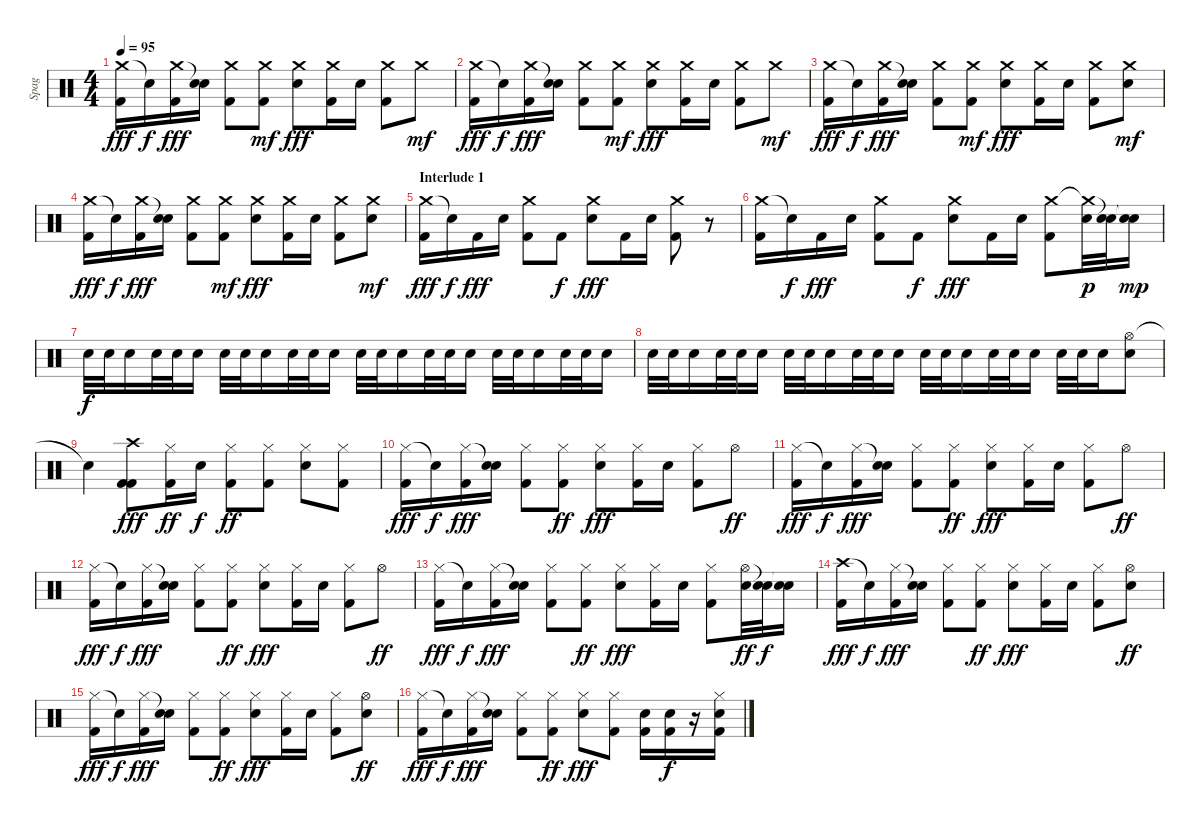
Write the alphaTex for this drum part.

\track ("Spag" "Spag") {instrument percussion}
\staff {score}
\articulation defaults
\ts (4 4)
\tempo 95
\clef neutral
\ks c
("Crash medium (hit)" "Kick (hit) 2").16{dy fff} "Snare (hit)"{t}.16{dy f} ("Crash medium (hit)" "Kick (hit) 2").16{dy fff} ("Snare (hit)"{t} "Electric Snare (hit)").16 ("Crash medium (hit)" "Kick (hit) 2").8 ("Crash medium (hit)" "Kick (hit) 2").8{dy mf} ("Crash medium (hit)" "Electric Snare (hit)").8{dy fff} ("Crash medium (hit)" "Kick (hit) 2").16 "Electric Snare (hit)".16 ("Crash medium (hit)" "Kick (hit) 2").8 "Crash medium (hit)".8{dy mf} |
("Crash medium (hit)" "Kick (hit) 2").16{dy fff} "Snare (hit)"{t}.16{dy f} ("Crash medium (hit)" "Kick (hit) 2").16{dy fff} ("Snare (hit)"{t} "Electric Snare (hit)").16 ("Crash medium (hit)" "Kick (hit) 2").8 ("Crash medium (hit)" "Kick (hit) 2").8{dy mf} ("Crash medium (hit)" "Electric Snare (hit)").8{dy fff} ("Crash medium (hit)" "Kick (hit) 2").16 "Electric Snare (hit)".16 ("Crash medium (hit)" "Kick (hit) 2").8 "Crash medium (hit)".8{dy mf} |
("Crash medium (hit)" "Kick (hit) 2").16{dy fff} "Snare (hit)"{t}.16{dy f} ("Crash medium (hit)" "Kick (hit) 2").16{dy fff} ("Snare (hit)"{t} "Electric Snare (hit)").16 ("Crash medium (hit)" "Kick (hit) 2").8 ("Crash medium (hit)" "Kick (hit) 2").8{dy mf} ("Crash medium (hit)" "Electric Snare (hit)").8{dy fff} ("Crash medium (hit)" "Kick (hit) 2").16 "Electric Snare (hit)".16 ("Crash medium (hit)" "Kick (hit) 2").8 ("Crash medium (hit)" "Electric Snare (hit)").8{dy mf} |
("Crash medium (hit)" "Kick (hit) 2").16{dy fff} "Snare (hit)"{t}.16{dy f} ("Crash medium (hit)" "Kick (hit) 2").16{dy fff} ("Snare (hit)"{t} "Electric Snare (hit)").16 ("Crash medium (hit)" "Kick (hit) 2").8 ("Crash medium (hit)" "Kick (hit) 2").8{dy mf} ("Crash medium (hit)" "Electric Snare (hit)").8{dy fff} ("Crash medium (hit)" "Kick (hit) 2").16 "Electric Snare (hit)".16 ("Crash medium (hit)" "Kick (hit) 2").8 ("Crash medium (hit)" "Electric Snare (hit)").8{dy mf} |
\section ("" "Interlude 1")
("Crash medium (hit)" "Kick (hit) 2").16{dy fff} "Snare (hit)"{t}.16{dy f} "Kick (hit) 2".16{dy fff} "Electric Snare (hit)".16 ("Crash medium (hit)" "Kick (hit) 2").8 "Kick (hit) 2".8{dy f} ("Crash medium (hit)" "Electric Snare (hit)").8{dy fff} "Kick (hit) 2".16 "Electric Snare (hit)".16 ("Crash medium (hit)" "Kick (hit) 2").8 r.8 |
("Crash medium (hit)" "Kick (hit) 2").16 "Snare (hit)"{t}.16{dy f} "Kick (hit) 2".16{dy fff} "Electric Snare (hit)".16 ("Crash medium (hit)" "Kick (hit) 2").8 "Kick (hit) 2".8{dy f} ("Crash medium (hit)" "Electric Snare (hit)").8{dy fff} "Kick (hit) 2".16 "Electric Snare (hit)".16 ("Crash medium (hit)" "Kick (hit) 2").8 ("Crash medium (hit)"{t} "Electric Snare (hit)").32{dy p} ("Snare (hit)"{t} "Electric Snare (hit)").32 ("Snare (hit)"{t} "Electric Snare (hit)").16{dy mp} |
"Electric Snare (hit)".32{dy f volume 10} "Electric Snare (hit)".32 "Electric Snare (hit)".16 "Electric Snare (hit)".32{volume 12} "Electric Snare (hit)".32 "Electric Snare (hit)".16 "Electric Snare (hit)".32 "Electric Snare (hit)".32 "Electric Snare (hit)".16 "Electric Snare (hit)".32 "Electric Snare (hit)".32{volume 13} "Electric Snare (hit)".16 "Electric Snare (hit)".32 "Electric Snare (hit)".32 "Electric Snare (hit)".16 "Electric Snare (hit)".32 "Electric Snare (hit)".32 "Electric Snare (hit)".16 "Electric Snare (hit)".32 "Electric Snare (hit)".32 "Electric Snare (hit)".16{volume 14} "Electric Snare (hit)".32 "Electric Snare (hit)".32 "Electric Snare (hit)".16 |
"Electric Snare (hit)".32 "Electric Snare (hit)".32 "Electric Snare (hit)".16{volume 15} "Electric Snare (hit)".32 "Electric Snare (hit)".32 "Electric Snare (hit)".16 "Electric Snare (hit)".32 "Electric Snare (hit)".32 "Electric Snare (hit)".16 "Electric Snare (hit)".32 "Electric Snare (hit)".32 "Electric Snare (hit)".16 "Electric Snare (hit)".32{volume 16} "Electric Snare (hit)".32 "Electric Snare (hit)".16 "Electric Snare (hit)".32 "Electric Snare (hit)".32 "Electric Snare (hit)".16 "Electric Snare (hit)".32 "Electric Snare (hit)".32 "Electric Snare (hit)".16 ("Hi-Hat (open)" "Electric Snare (hit)").8 |
"Snare (hit)"{t}.4 ("Crash high (hit)" "Kick (hit) 2" "Kick (hit) 2").8{dy fff} ("Hi-Hat (closed)" "Kick (hit) 2").16{dy ff} "Electric Snare (hit)".16{dy f} ("Hi-Hat (closed)" "Kick (hit) 2").8{dy ff} ("Hi-Hat (closed)" "Kick (hit) 2").8 ("Hi-Hat (closed)" "Electric Snare (hit)").8 ("Hi-Hat (closed)" "Kick (hit) 2").8 |
("Hi-Hat (closed)" "Kick (hit) 2").16{dy fff} "Snare (hit)"{t}.16{dy f} ("Hi-Hat (closed)" "Kick (hit) 2").16{dy fff} ("Snare (hit)"{t} "Electric Snare (hit)").16 ("Hi-Hat (closed)" "Kick (hit) 2").8 ("Hi-Hat (closed)" "Kick (hit) 2").8{dy ff} ("Hi-Hat (closed)" "Electric Snare (hit)").8{dy fff} ("Hi-Hat (closed)" "Kick (hit) 2").16 "Electric Snare (hit)".16 ("Hi-Hat (closed)" "Kick (hit) 2").8 "Hi-Hat (open)".8{dy ff} |
("Hi-Hat (closed)" "Kick (hit) 2").16{dy fff} "Snare (hit)"{t}.16{dy f} ("Hi-Hat (closed)" "Kick (hit) 2").16{dy fff} ("Snare (hit)"{t} "Electric Snare (hit)").16 ("Hi-Hat (closed)" "Kick (hit) 2").8 ("Hi-Hat (closed)" "Kick (hit) 2").8{dy ff} ("Hi-Hat (closed)" "Electric Snare (hit)").8{dy fff} ("Hi-Hat (closed)" "Kick (hit) 2").16 "Electric Snare (hit)".16 ("Hi-Hat (closed)" "Kick (hit) 2").8 "Hi-Hat (open)".8{dy ff} |
("Hi-Hat (closed)" "Kick (hit) 2").16{dy fff} "Snare (hit)"{t}.16{dy f} ("Hi-Hat (closed)" "Kick (hit) 2").16{dy fff} ("Snare (hit)"{t} "Electric Snare (hit)").16 ("Hi-Hat (closed)" "Kick (hit) 2").8 ("Hi-Hat (closed)" "Kick (hit) 2").8{dy ff} ("Hi-Hat (closed)" "Electric Snare (hit)").8{dy fff} ("Hi-Hat (closed)" "Kick (hit) 2").16 "Electric Snare (hit)".16 ("Hi-Hat (closed)" "Kick (hit) 2").8 "Hi-Hat (open)".8{dy ff} |
("Hi-Hat (closed)" "Kick (hit) 2").16{dy fff} "Snare (hit)"{t}.16{dy f} ("Hi-Hat (closed)" "Kick (hit) 2").16{dy fff} ("Snare (hit)"{t} "Electric Snare (hit)").16 ("Hi-Hat (closed)" "Kick (hit) 2").8 ("Hi-Hat (closed)" "Kick (hit) 2").8{dy ff} ("Hi-Hat (closed)" "Electric Snare (hit)").8{dy fff} ("Hi-Hat (closed)" "Kick (hit) 2").16 "Electric Snare (hit)".16 ("Hi-Hat (closed)" "Kick (hit) 2").8 ("Hi-Hat (open)" "Electric Snare (hit)").32{dy ff} ("Snare (hit)"{t} "Electric Snare (hit)").32{dy f} ("Snare (hit)"{t} "Electric Snare (hit)").16 |
("Crash high (hit)" "Kick (hit) 2").16{dy fff} "Snare (hit)"{t}.16{dy f} ("Hi-Hat (closed)" "Kick (hit) 2").16{dy fff} ("Snare (hit)"{t} "Electric Snare (hit)").16 ("Hi-Hat (closed)" "Kick (hit) 2").8 ("Hi-Hat (closed)" "Kick (hit) 2").8{dy ff} ("Hi-Hat (closed)" "Electric Snare (hit)").8{dy fff} ("Hi-Hat (closed)" "Kick (hit) 2").16 "Electric Snare (hit)".16 ("Hi-Hat (closed)" "Kick (hit) 2").8 ("Hi-Hat (open)" "Electric Snare (hit)").8{dy ff} |
("Hi-Hat (closed)" "Kick (hit) 2").16{dy fff} "Snare (hit)"{t}.16{dy f} ("Hi-Hat (closed)" "Kick (hit) 2").16{dy fff} ("Snare (hit)"{t} "Electric Snare (hit)").16 ("Hi-Hat (closed)" "Kick (hit) 2").8 ("Hi-Hat (closed)" "Kick (hit) 2").8{dy ff} ("Hi-Hat (closed)" "Electric Snare (hit)").8{dy fff} ("Hi-Hat (closed)" "Kick (hit) 2").16 "Electric Snare (hit)".16 ("Hi-Hat (closed)" "Kick (hit) 2").8 ("Hi-Hat (open)" "Electric Snare (hit)").8{dy ff} |
("Hi-Hat (closed)" "Kick (hit) 2").16{dy fff} "Snare (hit)"{t}.16{dy f} ("Hi-Hat (closed)" "Kick (hit) 2").16{dy fff} ("Snare (hit)"{t} "Electric Snare (hit)").16 ("Hi-Hat (closed)" "Kick (hit) 2").8 ("Hi-Hat (closed)" "Kick (hit) 2").8{dy ff} ("Hi-Hat (closed)" "Electric Snare (hit)").8{dy fff} ("Hi-Hat (closed)" "Kick (hit) 2").8 ("Snare (hit) 2" "Kick (hit) 2").16 ("Snare (hit) 2" "Kick (hit) 2").16{dy f} r.16 ("Hi-Hat (closed)" "Snare (hit) 2" "Kick (hit) 2").16
